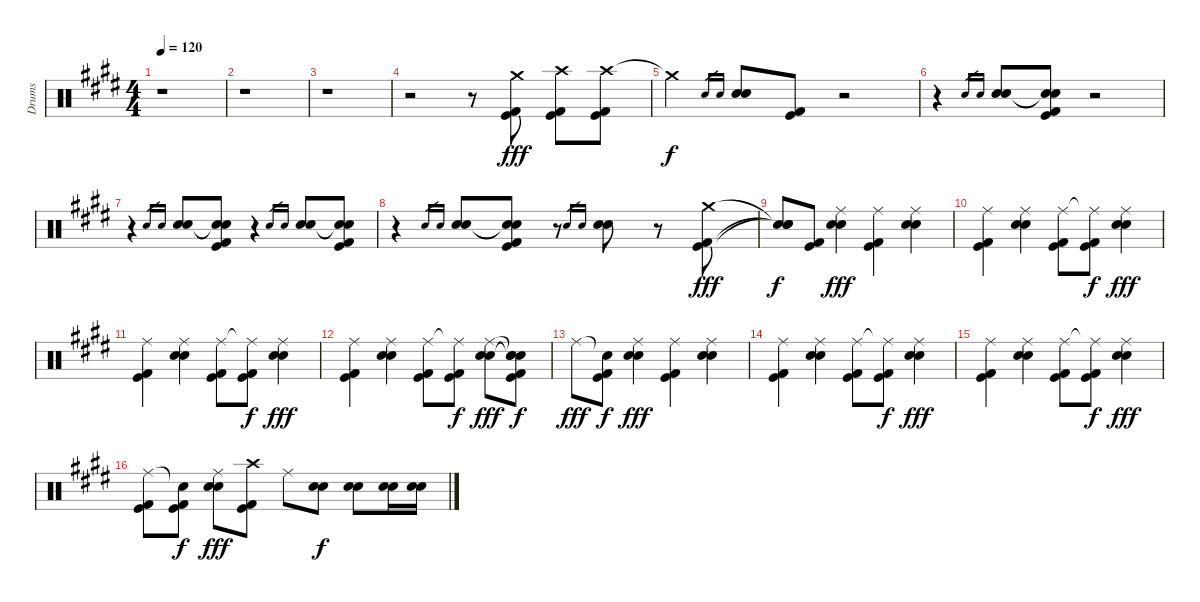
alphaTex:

\track ("Drums" "Drums") {instrument percussion}
\staff {score}
\articulation defaults
\ts (4 4)
\tempo 120
\clef neutral
\ks e
r.1{dy fff} |
r.1 |
r.1 |
r.2 r.8 ("Crash medium (hit)" "Kick (hit)" "Kick (hit) 2").8 ("Crash high (hit)" "Kick (hit)" "Kick (hit) 2").8 ("Crash high (hit)" "Kick (hit)" "Kick (hit) 2").8 |
"Crash medium (hit)"{t}.4{dy f} "Electric Snare (hit)".16{gr} "Snare (hit) 2".16{gr} ("Electric Snare (hit)" "Snare (hit) 2").8 ("Kick (hit)" "Kick (hit) 2").8 r.2 |
r.4 "Electric Snare (hit)".16{gr} "Snare (hit) 2".16{gr} ("Electric Snare (hit)" "Snare (hit) 2").8 ("Snare (hit)"{t} "Snare (hit)"{t} "Kick (hit)" "Kick (hit) 2").8 r.2 |
r.4 "Electric Snare (hit)".16{gr} "Snare (hit) 2".16{gr} ("Electric Snare (hit)" "Snare (hit) 2").8 ("Snare (hit)"{t} "Snare (hit)"{t} "Kick (hit)" "Kick (hit) 2").8 r.4 "Electric Snare (hit)".16{gr} "Snare (hit) 2".16{gr} ("Electric Snare (hit)" "Snare (hit) 2").8 ("Snare (hit)"{t} "Snare (hit)"{t} "Kick (hit)" "Kick (hit) 2").8 |
r.4 "Electric Snare (hit)".16{gr} "Snare (hit) 2".16{gr} ("Electric Snare (hit)" "Snare (hit) 2").8 ("Snare (hit)"{t} "Snare (hit)"{t} "Kick (hit)" "Kick (hit) 2").8 r.8 "Electric Snare (hit)".16{gr} "Snare (hit) 2".16{gr} ("Electric Snare (hit)" "Snare (hit) 2").8 r.8 ("Crash medium (hit)" "Kick (hit)" "Kick (hit) 2").8{dy fff} |
("Snare (hit)"{t} "Snare (hit)"{t} "Snare (hit)"{t}).8{dy f} ("Kick (hit)" "Kick (hit) 2").8 ("Ride (middle)" "Electric Snare (hit)" "Snare (hit) 2").4{dy fff} ("Ride (middle)" "Kick (hit)" "Kick (hit) 2").4 ("Ride (middle)" "Electric Snare (hit)" "Snare (hit) 2").4 |
("Ride (middle)" "Kick (hit)" "Kick (hit) 2").4 ("Ride (middle)" "Electric Snare (hit)" "Snare (hit) 2").4 ("Ride (middle)" "Kick (hit)" "Kick (hit) 2").8 ("Ride (middle)"{t} "Kick (hit)" "Kick (hit) 2").8{dy f} ("Ride (middle)" "Electric Snare (hit)" "Snare (hit) 2").4{dy fff} |
("Ride (middle)" "Kick (hit)" "Kick (hit) 2").4 ("Ride (middle)" "Electric Snare (hit)" "Snare (hit) 2").4 ("Ride (middle)" "Kick (hit)" "Kick (hit) 2").8 ("Ride (middle)"{t} "Kick (hit)" "Kick (hit) 2").8{dy f} ("Ride (middle)" "Electric Snare (hit)" "Snare (hit) 2").4{dy fff} |
("Ride (middle)" "Kick (hit)" "Kick (hit) 2").4 ("Ride (middle)" "Electric Snare (hit)" "Snare (hit) 2").4 ("Ride (middle)" "Kick (hit)" "Kick (hit) 2").8 ("Ride (middle)"{t} "Kick (hit)" "Kick (hit) 2").8{dy f} ("Ride (middle)" "Electric Snare (hit)" "Snare (hit) 2").8{dy fff} ("Snare (hit)"{t} "Snare (hit)"{t} "Snare (hit)"{t} "Kick (hit)" "Kick (hit) 2").8{dy f} |
"Ride (middle)".8{dy fff} ("Snare (hit)"{t} "Kick (hit)" "Kick (hit) 2").8{dy f} ("Ride (middle)" "Electric Snare (hit)" "Snare (hit) 2").4{dy fff} ("Ride (middle)" "Kick (hit)" "Kick (hit) 2").4 ("Ride (middle)" "Electric Snare (hit)" "Snare (hit) 2").4 |
("Ride (middle)" "Kick (hit)" "Kick (hit) 2").4 ("Ride (middle)" "Electric Snare (hit)" "Snare (hit) 2").4 ("Ride (middle)" "Kick (hit)" "Kick (hit) 2").8 ("Ride (middle)"{t} "Kick (hit)" "Kick (hit) 2").8{dy f} ("Ride (middle)" "Electric Snare (hit)" "Snare (hit) 2").4{dy fff} |
("Ride (middle)" "Kick (hit)" "Kick (hit) 2").4 ("Ride (middle)" "Electric Snare (hit)" "Snare (hit) 2").4 ("Ride (middle)" "Kick (hit)" "Kick (hit) 2").8 ("Ride (middle)"{t} "Kick (hit)" "Kick (hit) 2").8{dy f} ("Ride (middle)" "Electric Snare (hit)" "Snare (hit) 2").4{dy fff} |
("Ride (middle)" "Kick (hit)" "Kick (hit) 2").8 ("Snare (hit)"{t} "Kick (hit)" "Kick (hit) 2").8{dy f} ("Ride (middle)" "Electric Snare (hit)" "Snare (hit) 2").8{dy fff} ("Crash high (hit)" "Kick (hit)" "Kick (hit) 2").8 "Ride (middle)".8 ("Electric Snare (hit)" "Snare (hit) 2").8{dy f} ("Electric Snare (hit)" "Snare (hit) 2").8 ("Electric Snare (hit)" "Snare (hit) 2").16 ("Electric Snare (hit)" "Snare (hit) 2").16
